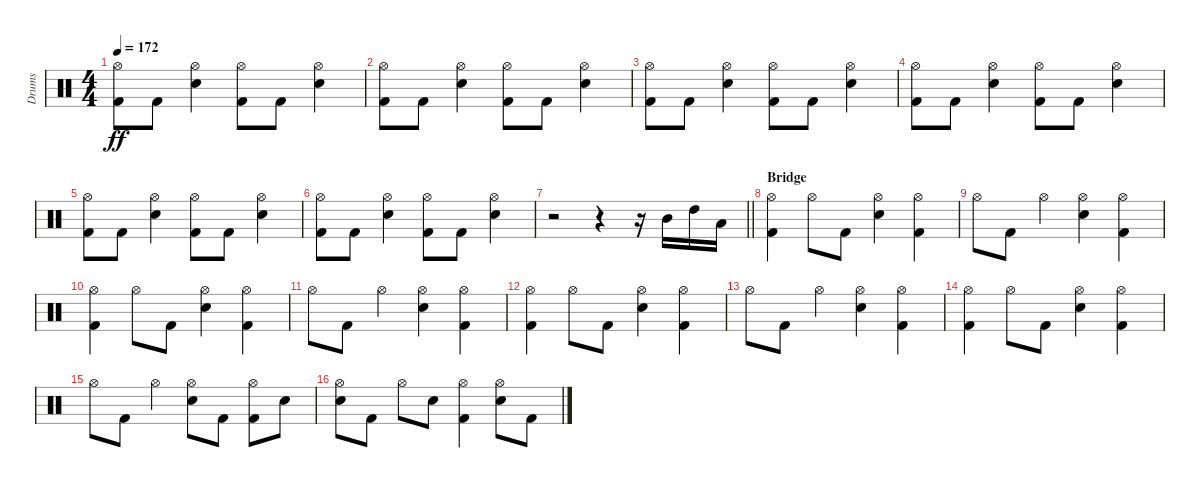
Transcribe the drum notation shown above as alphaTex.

\track ("Drums" "Drums") {instrument percussion}
\staff {score}
\articulation defaults
\ts (4 4)
\tempo 172
\clef neutral
\ks c
("Hi-Hat (open)" "Kick (hit) 2").8{dy ff} "Kick (hit) 2".8 ("Hi-Hat (open)" "Snare (hit) 2").4 ("Hi-Hat (open)" "Kick (hit) 2").8 "Kick (hit) 2".8 ("Hi-Hat (open)" "Snare (hit) 2").4 |
("Hi-Hat (open)" "Kick (hit) 2").8 "Kick (hit) 2".8 ("Hi-Hat (open)" "Snare (hit) 2").4 ("Hi-Hat (open)" "Kick (hit) 2").8 "Kick (hit) 2".8 ("Hi-Hat (open)" "Snare (hit) 2").4 |
("Hi-Hat (open)" "Kick (hit) 2").8 "Kick (hit) 2".8 ("Hi-Hat (open)" "Snare (hit) 2").4 ("Hi-Hat (open)" "Kick (hit) 2").8 "Kick (hit) 2".8 ("Hi-Hat (open)" "Snare (hit) 2").4 |
("Hi-Hat (open)" "Kick (hit) 2").8 "Kick (hit) 2".8 ("Hi-Hat (open)" "Snare (hit) 2").4 ("Hi-Hat (open)" "Kick (hit) 2").8 "Kick (hit) 2".8 ("Hi-Hat (open)" "Snare (hit) 2").4 |
("Hi-Hat (open)" "Kick (hit) 2").8 "Kick (hit) 2".8 ("Hi-Hat (open)" "Snare (hit) 2").4 ("Hi-Hat (open)" "Kick (hit) 2").8 "Kick (hit) 2".8 ("Hi-Hat (open)" "Snare (hit) 2").4 |
("Hi-Hat (open)" "Kick (hit) 2").8 "Kick (hit) 2".8 ("Hi-Hat (open)" "Snare (hit) 2").4 ("Hi-Hat (open)" "Kick (hit) 2").8 "Kick (hit) 2".8 ("Hi-Hat (open)" "Snare (hit) 2").4 |
\barLineRight lightlight
r.2 r.4 r.16 "Mid Tom (hit)".16 "High Tom (hit)".16 "Low Floor Tom (hit)".16 |
\section ("" "Bridge")
("Hi-Hat (open)" "Kick (hit) 2").4 "Hi-Hat (open)".8 "Kick (hit) 2".8 ("Hi-Hat (open)" "Snare (hit) 2").4 ("Hi-Hat (open)" "Kick (hit) 2").4 |
"Hi-Hat (open)".8 "Kick (hit) 2".8 "Hi-Hat (open)".4 ("Hi-Hat (open)" "Snare (hit) 2").4 ("Hi-Hat (open)" "Kick (hit) 2").4 |
("Hi-Hat (open)" "Kick (hit) 2").4 "Hi-Hat (open)".8 "Kick (hit) 2".8 ("Hi-Hat (open)" "Snare (hit) 2").4 ("Hi-Hat (open)" "Kick (hit) 2").4 |
"Hi-Hat (open)".8 "Kick (hit) 2".8 "Hi-Hat (open)".4 ("Hi-Hat (open)" "Snare (hit) 2").4 ("Hi-Hat (open)" "Kick (hit) 2").4 |
("Hi-Hat (open)" "Kick (hit) 2").4 "Hi-Hat (open)".8 "Kick (hit) 2".8 ("Hi-Hat (open)" "Snare (hit) 2").4 ("Hi-Hat (open)" "Kick (hit) 2").4 |
"Hi-Hat (open)".8 "Kick (hit) 2".8 "Hi-Hat (open)".4 ("Hi-Hat (open)" "Snare (hit) 2").4 ("Hi-Hat (open)" "Kick (hit) 2").4 |
("Hi-Hat (open)" "Kick (hit) 2").4 "Hi-Hat (open)".8 "Kick (hit) 2".8 ("Hi-Hat (open)" "Snare (hit) 2").4 ("Hi-Hat (open)" "Kick (hit) 2").4 |
"Hi-Hat (open)".8 "Kick (hit) 2".8 "Hi-Hat (open)".4 ("Hi-Hat (open)" "Snare (hit) 2").8 "Kick (hit) 2".8 ("Hi-Hat (open)" "Kick (hit) 2").8 "Snare (hit) 2".8 |
("Hi-Hat (open)" "Snare (hit) 2").8 "Kick (hit) 2".8 "Hi-Hat (open)".8 "Snare (hit) 2".8 ("Hi-Hat (open)" "Kick (hit) 2").4 ("Hi-Hat (open)" "Snare (hit) 2").8 "Kick (hit) 2".8
